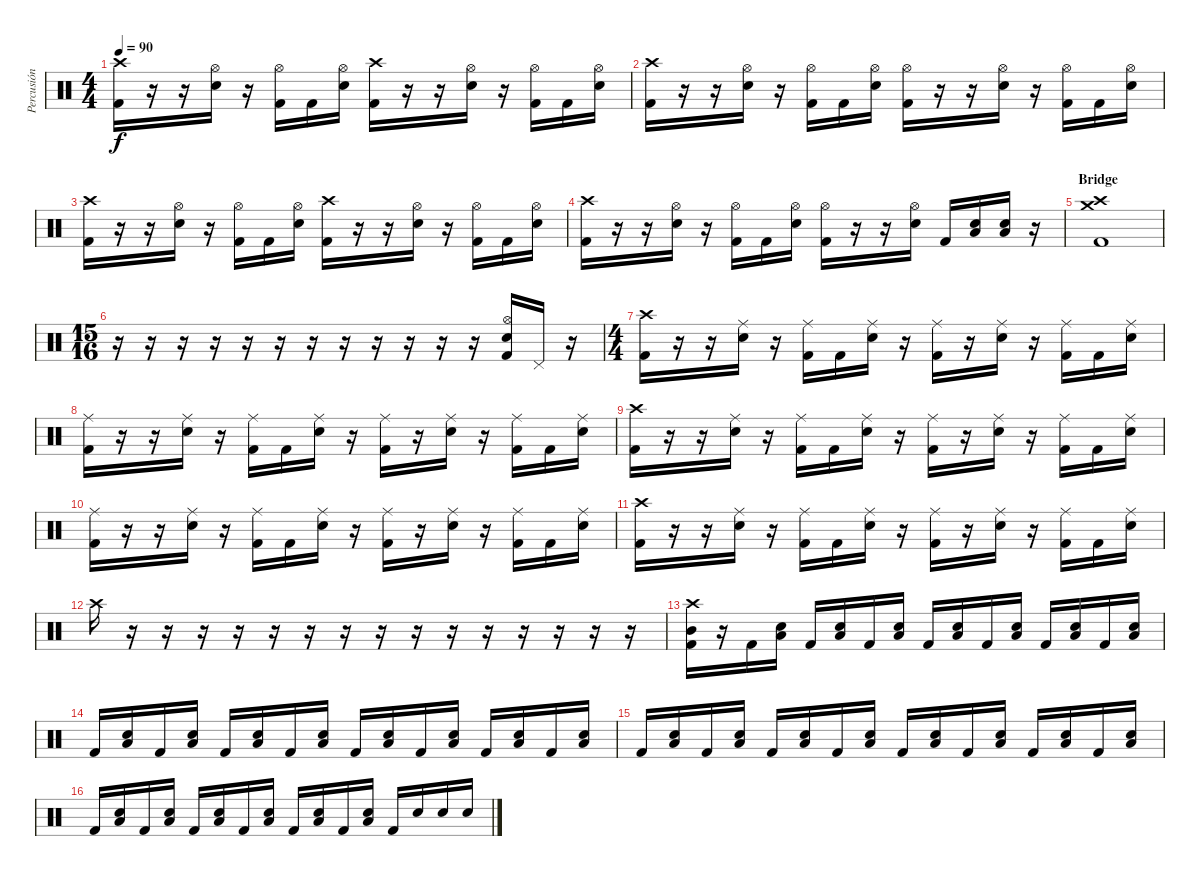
\track ("Percusión" "Percusión") {instrument percussion}
\staff {score}
\articulation defaults
\ts (4 4)
\tempo 90
\clef neutral
\ks c
("Crash high (hit)" "Kick (hit) 2").16{dy f} r.16 r.16 ("Hi-Hat (open)" "Electric Snare (hit)").16 r.16 ("Hi-Hat (open)" "Kick (hit) 2").16 "Kick (hit) 2".16 ("Hi-Hat (open)" "Electric Snare (hit)").16 ("Crash high (hit)" "Kick (hit) 2").16 r.16 r.16 ("Hi-Hat (open)" "Electric Snare (hit)").16 r.16 ("Hi-Hat (open)" "Kick (hit) 2").16 "Kick (hit) 2".16 ("Hi-Hat (open)" "Electric Snare (hit)").16 |
("Crash high (hit)" "Kick (hit) 2").16 r.16 r.16 ("Hi-Hat (open)" "Electric Snare (hit)").16 r.16 ("Hi-Hat (open)" "Kick (hit) 2").16 "Kick (hit) 2".16 ("Hi-Hat (open)" "Electric Snare (hit)").16 ("Hi-Hat (open)" "Kick (hit) 2").16 r.16 r.16 ("Hi-Hat (open)" "Electric Snare (hit)").16 r.16 ("Hi-Hat (open)" "Kick (hit) 2").16 "Kick (hit) 2".16 ("Hi-Hat (open)" "Electric Snare (hit)").16 |
("Crash high (hit)" "Kick (hit) 2").16 r.16 r.16 ("Hi-Hat (open)" "Electric Snare (hit)").16 r.16 ("Hi-Hat (open)" "Kick (hit) 2").16 "Kick (hit) 2".16 ("Hi-Hat (open)" "Electric Snare (hit)").16 ("Crash high (hit)" "Kick (hit) 2").16 r.16 r.16 ("Hi-Hat (open)" "Electric Snare (hit)").16 r.16 ("Hi-Hat (open)" "Kick (hit) 2").16 "Kick (hit) 2".16 ("Hi-Hat (open)" "Electric Snare (hit)").16 |
("Crash high (hit)" "Kick (hit) 2").16 r.16 r.16 ("Hi-Hat (open)" "Electric Snare (hit)").16 r.16 ("Hi-Hat (open)" "Kick (hit) 2").16 "Kick (hit) 2".16 ("Hi-Hat (open)" "Electric Snare (hit)").16 ("Hi-Hat (open)" "Kick (hit) 2").16 r.16 r.16 ("Hi-Hat (open)" "Electric Snare (hit)").16 "Kick (hit) 2".16 ("Low Tom (hit)" "Electric Snare (hit)").16 ("Low Tom (hit)" "Electric Snare (hit)").16 r.16 |
\section ("" "Bridge")
("Crash high (hit)" "Crash medium (hit)" "Kick (hit) 2").1 |
\ts (15 16)
r.16 r.16 r.16 r.16 r.16 r.16 r.16 r.16 r.16 r.16 r.16 r.16 ("Hi-Hat (open)" "Electric Snare (hit)" "Kick (hit) 2").16 "Pedal Hi-Hat (hit)".16 r.16 |
\ts (4 4)
("Crash high (hit)" "Kick (hit) 2").16 r.16 r.16 ("Ride (middle)" "Electric Snare (hit)").16 r.16 ("Ride (middle)" "Kick (hit) 2").16 "Kick (hit) 2".16 ("Ride (middle)" "Electric Snare (hit)").16 r.16 ("Ride (middle)" "Kick (hit) 2").16 r.16 ("Ride (middle)" "Electric Snare (hit)").16 r.16 ("Ride (middle)" "Kick (hit) 2").16 "Kick (hit) 2".16 ("Ride (middle)" "Electric Snare (hit)").16 |
("Ride (middle)" "Kick (hit) 2").16 r.16 r.16 ("Ride (middle)" "Electric Snare (hit)").16 r.16 ("Ride (middle)" "Kick (hit) 2").16 "Kick (hit) 2".16 ("Ride (middle)" "Electric Snare (hit)").16 r.16 ("Ride (middle)" "Kick (hit) 2").16 r.16 ("Ride (middle)" "Electric Snare (hit)").16 r.16 ("Ride (middle)" "Kick (hit) 2").16 "Kick (hit) 2".16 ("Ride (middle)" "Electric Snare (hit)").16 |
("Crash high (hit)" "Kick (hit) 2").16 r.16 r.16 ("Ride (middle)" "Electric Snare (hit)").16 r.16 ("Ride (middle)" "Kick (hit) 2").16 "Kick (hit) 2".16 ("Ride (middle)" "Electric Snare (hit)").16 r.16 ("Ride (middle)" "Kick (hit) 2").16 r.16 ("Ride (middle)" "Electric Snare (hit)").16 r.16 ("Ride (middle)" "Kick (hit) 2").16 "Kick (hit) 2".16 ("Ride (middle)" "Electric Snare (hit)").16 |
("Ride (middle)" "Kick (hit) 2").16 r.16 r.16 ("Ride (middle)" "Electric Snare (hit)").16 r.16 ("Ride (middle)" "Kick (hit) 2").16 "Kick (hit) 2".16 ("Ride (middle)" "Electric Snare (hit)").16 r.16 ("Ride (middle)" "Kick (hit) 2").16 r.16 ("Ride (middle)" "Electric Snare (hit)").16 r.16 ("Ride (middle)" "Kick (hit) 2").16 "Kick (hit) 2".16 ("Ride (middle)" "Electric Snare (hit)").16 |
("Crash high (hit)" "Kick (hit) 2").16 r.16 r.16 ("Ride (middle)" "Electric Snare (hit)").16 r.16 ("Ride (middle)" "Kick (hit) 2").16 "Kick (hit) 2".16 ("Ride (middle)" "Electric Snare (hit)").16 r.16 ("Ride (middle)" "Kick (hit) 2").16 r.16 ("Ride (middle)" "Electric Snare (hit)").16 r.16 ("Ride (middle)" "Kick (hit) 2").16 "Kick (hit) 2".16 ("Ride (middle)" "Electric Snare (hit)").16 |
"Crash high (hit)".16 r.16 r.16 r.16 r.16 r.16 r.16 r.16 r.16 r.16 r.16 r.16 r.16 r.16 r.16 r.16 |
("Mid Tom (hit)" "Crash high (hit)" "Kick (hit) 2").16 r.16 "Kick (hit) 2".16 ("Low Tom (hit)" "Electric Snare (hit)").16 "Kick (hit) 2".16 ("Low Tom (hit)" "Electric Snare (hit)").16 "Kick (hit) 2".16 ("Low Tom (hit)" "Electric Snare (hit)").16 "Kick (hit) 2".16 ("Low Tom (hit)" "Electric Snare (hit)").16 "Kick (hit) 2".16 ("Low Tom (hit)" "Electric Snare (hit)").16 "Kick (hit) 2".16 ("Low Tom (hit)" "Electric Snare (hit)").16 "Kick (hit) 2".16 ("Low Tom (hit)" "Electric Snare (hit)").16 |
"Kick (hit) 2".16 ("Low Tom (hit)" "Electric Snare (hit)").16 "Kick (hit) 2".16 ("Low Tom (hit)" "Electric Snare (hit)").16 "Kick (hit) 2".16 ("Low Tom (hit)" "Electric Snare (hit)").16 "Kick (hit) 2".16 ("Low Tom (hit)" "Electric Snare (hit)").16 "Kick (hit) 2".16 ("Low Tom (hit)" "Electric Snare (hit)").16 "Kick (hit) 2".16 ("Low Tom (hit)" "Electric Snare (hit)").16 "Kick (hit) 2".16 ("Low Tom (hit)" "Electric Snare (hit)").16 "Kick (hit) 2".16 ("Low Tom (hit)" "Electric Snare (hit)").16 |
"Kick (hit) 2".16 ("Low Tom (hit)" "Electric Snare (hit)").16 "Kick (hit) 2".16 ("Low Tom (hit)" "Electric Snare (hit)").16 "Kick (hit) 2".16 ("Low Tom (hit)" "Electric Snare (hit)").16 "Kick (hit) 2".16 ("Low Tom (hit)" "Electric Snare (hit)").16 "Kick (hit) 2".16 ("Low Tom (hit)" "Electric Snare (hit)").16 "Kick (hit) 2".16 ("Low Tom (hit)" "Electric Snare (hit)").16 "Kick (hit) 2".16 ("Low Tom (hit)" "Electric Snare (hit)").16 "Kick (hit) 2".16 ("Low Tom (hit)" "Electric Snare (hit)").16 |
"Kick (hit) 2".16 ("Low Tom (hit)" "Electric Snare (hit)").16 "Kick (hit) 2".16 ("Low Tom (hit)" "Electric Snare (hit)").16 "Kick (hit) 2".16 ("Low Tom (hit)" "Electric Snare (hit)").16 "Kick (hit) 2".16 ("Low Tom (hit)" "Electric Snare (hit)").16 "Kick (hit) 2".16 ("Low Tom (hit)" "Electric Snare (hit)").16 "Kick (hit) 2".16 ("Low Tom (hit)" "Electric Snare (hit)").16 "Kick (hit) 2".16 "Electric Snare (hit)".16 "Electric Snare (hit)".16 "Electric Snare (hit)".16
